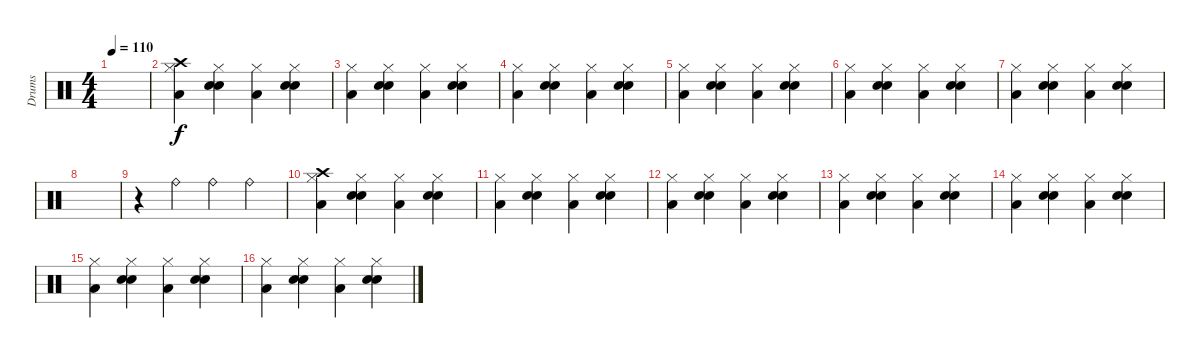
\track ("Drums" "Drums") {instrument percussion}
\staff {score}
\articulation defaults
\ts (4 4)
\tempo 110
\clef neutral
\ks c
|
("Hi-Hat (closed)" "Low Tom (hit)" "Crash high (hit)").4 ("Hi-Hat (closed)" "Electric Snare (hit)" "Snare (hit) 2").4 ("Hi-Hat (closed)" "Low Tom (hit)").4 ("Hi-Hat (closed)" "Electric Snare (hit)" "Snare (hit) 2").4 |
("Hi-Hat (closed)" "Low Tom (hit)").4 ("Hi-Hat (closed)" "Electric Snare (hit)" "Snare (hit) 2").4 ("Hi-Hat (closed)" "Low Tom (hit)").4 ("Hi-Hat (closed)" "Electric Snare (hit)" "Snare (hit) 2").4 |
("Hi-Hat (closed)" "Low Tom (hit)").4 ("Hi-Hat (closed)" "Electric Snare (hit)" "Snare (hit) 2").4 ("Hi-Hat (closed)" "Low Tom (hit)").4 ("Hi-Hat (closed)" "Electric Snare (hit)" "Snare (hit) 2").4 |
("Hi-Hat (closed)" "Low Tom (hit)").4 ("Hi-Hat (closed)" "Electric Snare (hit)" "Snare (hit) 2").4 ("Hi-Hat (closed)" "Low Tom (hit)").4 ("Hi-Hat (closed)" "Electric Snare (hit)" "Snare (hit) 2").4 |
("Hi-Hat (closed)" "Low Tom (hit)").4 ("Hi-Hat (closed)" "Electric Snare (hit)" "Snare (hit) 2").4 ("Hi-Hat (closed)" "Low Tom (hit)").4 ("Hi-Hat (closed)" "Electric Snare (hit)" "Snare (hit) 2").4 |
("Hi-Hat (closed)" "Low Tom (hit)").4 ("Hi-Hat (closed)" "Electric Snare (hit)" "Snare (hit) 2").4 ("Hi-Hat (closed)" "Low Tom (hit)").4 ("Hi-Hat (closed)" "Electric Snare (hit)" "Snare (hit) 2").4 |
|
r.4 "Ride (bell)".4 "Ride (bell)".4 "Ride (bell)".4 |
("Hi-Hat (closed)" "Low Tom (hit)" "Crash high (hit)").4 ("Hi-Hat (closed)" "Electric Snare (hit)" "Snare (hit) 2").4 ("Hi-Hat (closed)" "Low Tom (hit)").4 ("Hi-Hat (closed)" "Electric Snare (hit)" "Snare (hit) 2").4 |
("Hi-Hat (closed)" "Low Tom (hit)").4 ("Hi-Hat (closed)" "Electric Snare (hit)" "Snare (hit) 2").4 ("Hi-Hat (closed)" "Low Tom (hit)").4 ("Hi-Hat (closed)" "Electric Snare (hit)" "Snare (hit) 2").4 |
("Hi-Hat (closed)" "Low Tom (hit)").4 ("Hi-Hat (closed)" "Electric Snare (hit)" "Snare (hit) 2").4 ("Hi-Hat (closed)" "Low Tom (hit)").4 ("Hi-Hat (closed)" "Electric Snare (hit)" "Snare (hit) 2").4 |
("Hi-Hat (closed)" "Low Tom (hit)").4 ("Hi-Hat (closed)" "Electric Snare (hit)" "Snare (hit) 2").4 ("Hi-Hat (closed)" "Low Tom (hit)").4 ("Hi-Hat (closed)" "Electric Snare (hit)" "Snare (hit) 2").4 |
("Hi-Hat (closed)" "Low Tom (hit)").4 ("Hi-Hat (closed)" "Electric Snare (hit)" "Snare (hit) 2").4 ("Hi-Hat (closed)" "Low Tom (hit)").4 ("Hi-Hat (closed)" "Electric Snare (hit)" "Snare (hit) 2").4 |
("Hi-Hat (closed)" "Low Tom (hit)").4 ("Hi-Hat (closed)" "Electric Snare (hit)" "Snare (hit) 2").4 ("Hi-Hat (closed)" "Low Tom (hit)").4 ("Hi-Hat (closed)" "Electric Snare (hit)" "Snare (hit) 2").4 |
("Hi-Hat (closed)" "Low Tom (hit)").4 ("Hi-Hat (closed)" "Electric Snare (hit)" "Snare (hit) 2").4 ("Hi-Hat (closed)" "Low Tom (hit)").4 ("Hi-Hat (closed)" "Electric Snare (hit)" "Snare (hit) 2").4
